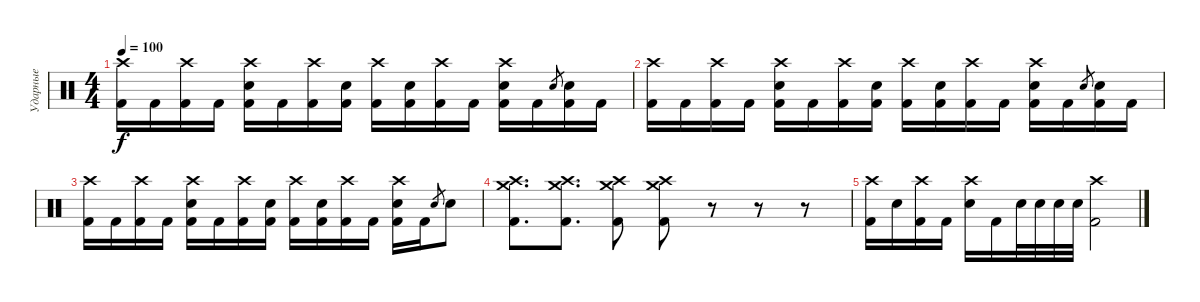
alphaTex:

\track ("Ударные" "Ударные") {instrument percussion}
\staff {score}
\articulation defaults
\ts (4 4)
\tempo 100
\clef neutral
\ks c
("Crash high (hit)" "Kick (hit) 2").16{dy f} "Kick (hit) 2".16 ("Crash high (hit)" "Kick (hit) 2").16 "Kick (hit) 2".16 ("Crash high (hit)" "Kick (hit) 2" "Snare (hit) 2").16 "Kick (hit) 2".16 ("Crash high (hit)" "Kick (hit) 2").16 ("Kick (hit) 2" "Snare (hit) 2").16 ("Crash high (hit)" "Kick (hit) 2").16 ("Kick (hit) 2" "Snare (hit) 2").16 ("Crash high (hit)" "Kick (hit) 2").16 "Kick (hit) 2".16 ("Crash high (hit)" "Kick (hit) 2" "Snare (hit) 2").16 "Kick (hit) 2".16 "Snare (hit) 2".8{gr} ("Kick (hit) 2" "Snare (hit) 2").16 "Kick (hit) 2".16 |
("Crash high (hit)" "Kick (hit) 2").16 "Kick (hit) 2".16 ("Crash high (hit)" "Kick (hit) 2").16 "Kick (hit) 2".16 ("Crash high (hit)" "Kick (hit) 2" "Snare (hit) 2").16 "Kick (hit) 2".16 ("Crash high (hit)" "Kick (hit) 2").16 ("Kick (hit) 2" "Snare (hit) 2").16 ("Crash high (hit)" "Kick (hit) 2").16 ("Kick (hit) 2" "Snare (hit) 2").16 ("Crash high (hit)" "Kick (hit) 2").16 "Kick (hit) 2".16 ("Crash high (hit)" "Kick (hit) 2" "Snare (hit) 2").16 "Kick (hit) 2".16 "Snare (hit) 2".8{gr} ("Kick (hit) 2" "Snare (hit) 2").16 "Kick (hit) 2".16 |
("Crash high (hit)" "Kick (hit) 2").16 "Kick (hit) 2".16 ("Crash high (hit)" "Kick (hit) 2").16 "Kick (hit) 2".16 ("Crash high (hit)" "Kick (hit) 2" "Snare (hit) 2").16 "Kick (hit) 2".16 ("Crash high (hit)" "Kick (hit) 2").16 ("Kick (hit) 2" "Snare (hit) 2").16 ("Crash high (hit)" "Kick (hit) 2").16 ("Kick (hit) 2" "Snare (hit) 2").16 ("Crash high (hit)" "Kick (hit) 2").16 "Kick (hit) 2".16 ("Crash high (hit)" "Kick (hit) 2" "Snare (hit) 2").16 "Kick (hit) 2".16 "Snare (hit) 2".8{gr} "Snare (hit) 2".8 |
("Crash high (hit)" "Kick (hit) 2" "Crash medium (hit)").8{d} ("Crash high (hit)" "Kick (hit) 2" "Crash medium (hit)").8{d} ("Crash high (hit)" "Kick (hit) 2" "Crash medium (hit)").8 ("Crash high (hit)" "Kick (hit) 2" "Crash medium (hit)").8 r.8 r.8 r.8 |
("Crash high (hit)" "Kick (hit) 2").16 "Snare (hit) 2".16 ("Crash high (hit)" "Kick (hit) 2").16 "Kick (hit) 2".16 ("Crash high (hit)" "Snare (hit) 2").16 "Kick (hit) 2".16 "Snare (hit) 2".32 "Snare (hit) 2".32 "Snare (hit) 2".32 "Snare (hit) 2".32 ("Kick (hit) 2" "Crash high (hit)").2
